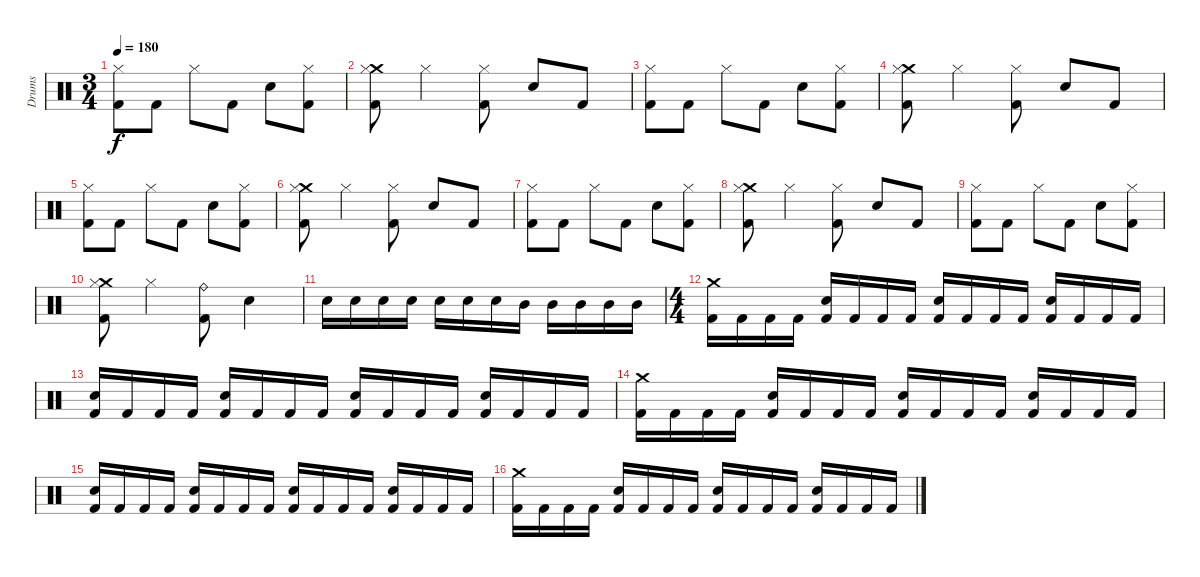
\track ("Drums" "Drums") {instrument percussion}
\staff {score}
\articulation defaults
\ts (3 4)
\tempo 180
\clef neutral
\ks c
("Hi-Hat (closed)" "Kick (hit) 2").8{dy f} "Kick (hit) 2".8 "Hi-Hat (closed)".8 "Kick (hit) 2".8 "Snare (hit) 2".8 ("Hi-Hat (closed)" "Kick (hit) 2").8 |
("Crash medium (hit)" "Hi-Hat (closed)" "Kick (hit) 2").8 "Hi-Hat (closed)".4 ("Hi-Hat (closed)" "Kick (hit) 2").8 "Snare (hit) 2".8 "Kick (hit) 2".8 |
("Hi-Hat (closed)" "Kick (hit) 2").8 "Kick (hit) 2".8 "Hi-Hat (closed)".8 "Kick (hit) 2".8 "Snare (hit) 2".8 ("Hi-Hat (closed)" "Kick (hit) 2").8 |
("Crash medium (hit)" "Hi-Hat (closed)" "Kick (hit) 2").8 "Hi-Hat (closed)".4 ("Hi-Hat (closed)" "Kick (hit) 2").8 "Snare (hit) 2".8 "Kick (hit) 2".8 |
("Hi-Hat (closed)" "Kick (hit) 2").8 "Kick (hit) 2".8 "Hi-Hat (closed)".8 "Kick (hit) 2".8 "Snare (hit) 2".8 ("Hi-Hat (closed)" "Kick (hit) 2").8 |
("Crash medium (hit)" "Hi-Hat (closed)" "Kick (hit) 2").8 "Hi-Hat (closed)".4 ("Hi-Hat (closed)" "Kick (hit) 2").8 "Snare (hit) 2".8 "Kick (hit) 2".8 |
("Hi-Hat (closed)" "Kick (hit) 2").8 "Kick (hit) 2".8 "Hi-Hat (closed)".8 "Kick (hit) 2".8 "Snare (hit) 2".8 ("Hi-Hat (closed)" "Kick (hit) 2").8 |
("Crash medium (hit)" "Hi-Hat (closed)" "Kick (hit) 2").8 "Hi-Hat (closed)".4 ("Hi-Hat (closed)" "Kick (hit) 2").8 "Snare (hit) 2".8 "Kick (hit) 2".8 |
("Hi-Hat (closed)" "Kick (hit) 2").8 "Kick (hit) 2".8 "Hi-Hat (closed)".8 "Kick (hit) 2".8 "Snare (hit) 2".8 ("Hi-Hat (closed)" "Kick (hit) 2").8 |
("Crash medium (hit)" "Hi-Hat (closed)" "Kick (hit) 2").8 "Hi-Hat (closed)".4 ("Ride (bell)" "Kick (hit) 2").8 "Snare (hit) 2".4 |
"Snare (hit) 2".16 "Snare (hit) 2".16 "Snare (hit) 2".16 "Snare (hit) 2".16 "Snare (hit) 2".16 "Snare (hit) 2".16 "Snare (hit) 2".16 "Mid Tom (hit)".16 "Mid Tom (hit)".16 "Mid Tom (hit)".16 "Mid Tom (hit)".16 "Mid Tom (hit)".16 |
\ts (4 4)
("Crash medium (hit)" "Kick (hit) 2").16 "Kick (hit) 2".16 "Kick (hit) 2".16 "Kick (hit) 2".16 ("Snare (hit) 2" "Kick (hit) 2").16 "Kick (hit) 2".16 "Kick (hit) 2".16 "Kick (hit) 2".16 ("Snare (hit) 2" "Kick (hit) 2").16 "Kick (hit) 2".16 "Kick (hit) 2".16 "Kick (hit) 2".16 ("Snare (hit) 2" "Kick (hit) 2").16 "Kick (hit) 2".16 "Kick (hit) 2".16 "Kick (hit) 2".16 |
("Snare (hit) 2" "Kick (hit) 2").16 "Kick (hit) 2".16 "Kick (hit) 2".16 "Kick (hit) 2".16 ("Snare (hit) 2" "Kick (hit) 2").16 "Kick (hit) 2".16 "Kick (hit) 2".16 "Kick (hit) 2".16 ("Snare (hit) 2" "Kick (hit) 2").16 "Kick (hit) 2".16 "Kick (hit) 2".16 "Kick (hit) 2".16 ("Snare (hit) 2" "Kick (hit) 2").16 "Kick (hit) 2".16 "Kick (hit) 2".16 "Kick (hit) 2".16 |
("Crash medium (hit)" "Kick (hit) 2").16 "Kick (hit) 2".16 "Kick (hit) 2".16 "Kick (hit) 2".16 ("Snare (hit) 2" "Kick (hit) 2").16 "Kick (hit) 2".16 "Kick (hit) 2".16 "Kick (hit) 2".16 ("Snare (hit) 2" "Kick (hit) 2").16 "Kick (hit) 2".16 "Kick (hit) 2".16 "Kick (hit) 2".16 ("Snare (hit) 2" "Kick (hit) 2").16 "Kick (hit) 2".16 "Kick (hit) 2".16 "Kick (hit) 2".16 |
("Snare (hit) 2" "Kick (hit) 2").16 "Kick (hit) 2".16 "Kick (hit) 2".16 "Kick (hit) 2".16 ("Snare (hit) 2" "Kick (hit) 2").16 "Kick (hit) 2".16 "Kick (hit) 2".16 "Kick (hit) 2".16 ("Snare (hit) 2" "Kick (hit) 2").16 "Kick (hit) 2".16 "Kick (hit) 2".16 "Kick (hit) 2".16 ("Snare (hit) 2" "Kick (hit) 2").16 "Kick (hit) 2".16 "Kick (hit) 2".16 "Kick (hit) 2".16 |
("Crash medium (hit)" "Kick (hit) 2").16 "Kick (hit) 2".16 "Kick (hit) 2".16 "Kick (hit) 2".16 ("Snare (hit) 2" "Kick (hit) 2").16 "Kick (hit) 2".16 "Kick (hit) 2".16 "Kick (hit) 2".16 ("Snare (hit) 2" "Kick (hit) 2").16 "Kick (hit) 2".16 "Kick (hit) 2".16 "Kick (hit) 2".16 ("Snare (hit) 2" "Kick (hit) 2").16 "Kick (hit) 2".16 "Kick (hit) 2".16 "Kick (hit) 2".16
